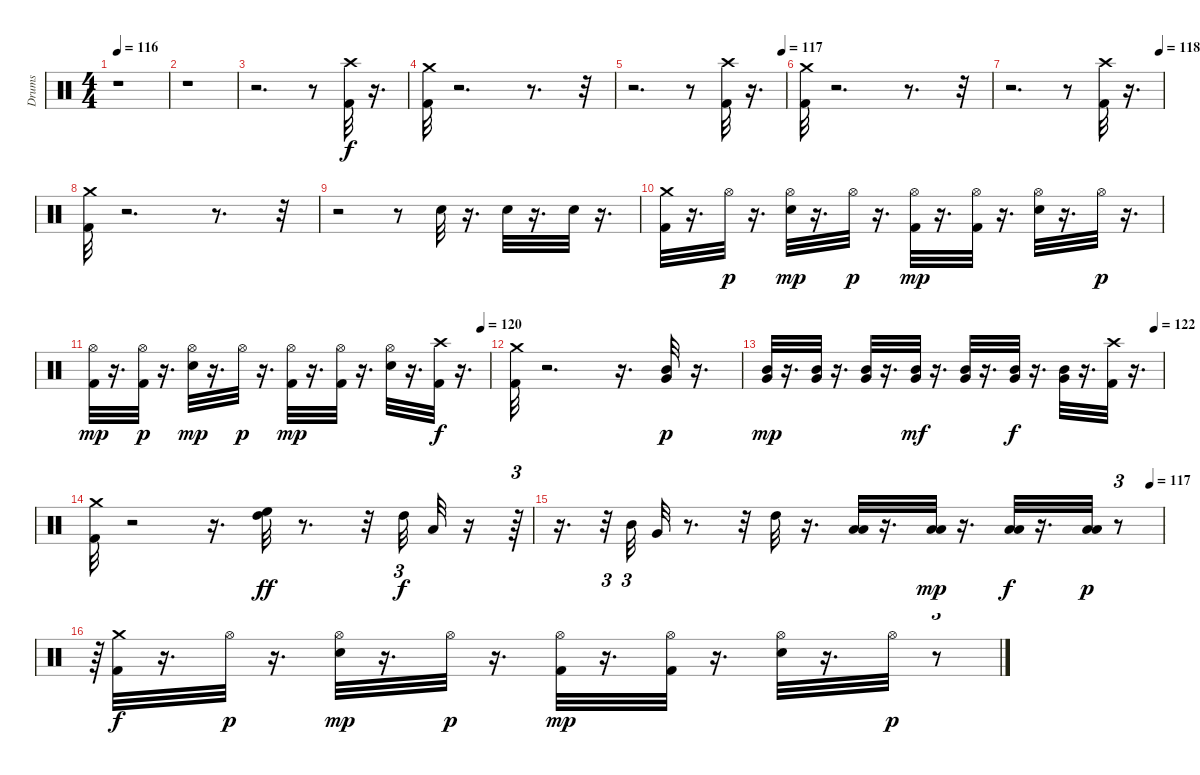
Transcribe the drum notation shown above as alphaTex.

\track ("Drums" "Drums") {instrument percussion}
\staff {score}
\articulation defaults
\ts (4 4)
\tempo 116
\clef neutral
\ks c
r.1{dy f} |
r.1 |
r.2{d} r.8 ("Crash high (hit)" "Kick (hit) 2").32 r.16{d} |
("Crash medium (hit)" "Kick (hit) 2").32 r.2{d} r.8{d} r.32 |
\tempo (117 0.9791666666666666)
r.2{d} r.8 ("Crash high (hit)" "Kick (hit) 2").32 r.16{d} |
("Crash medium (hit)" "Kick (hit) 2").32 r.2{d} r.8{d} r.32 |
\tempo (118 0.9791666666666666)
r.2{d} r.8 ("Crash high (hit)" "Kick (hit) 2").32 r.16{d} |
("Crash medium (hit)" "Kick (hit) 2").32 r.2{d} r.8{d} r.32 |
r.2 r.8 "Snare (hit) 2".32 r.16{d} "Snare (hit) 2".32 r.16{d} "Snare (hit) 2".32 r.16{d} |
("Crash medium (hit)" "Kick (hit) 2").32 r.16{d} "Hi-Hat (open)".32{dy p} r.16{d} ("Hi-Hat (open)" "Snare (hit) 2").32{dy mp} r.16{d} "Hi-Hat (open)".32{dy p} r.16{d} ("Kick (hit) 2" "Hi-Hat (open)").32{dy mp} r.16{d} ("Hi-Hat (open)" "Kick (hit) 2").32 r.16{d} ("Snare (hit) 2" "Hi-Hat (open)").32 r.16{d} "Hi-Hat (open)".32{dy p} r.16{d} |
\tempo (120 0.9791666666666666)
("Kick (hit) 2" "Hi-Hat (open)").32{dy mp} r.16{d} ("Kick (hit) 2" "Hi-Hat (open)").32{dy p} r.16{d} ("Hi-Hat (open)" "Snare (hit) 2").32{dy mp} r.16{d} "Hi-Hat (open)".32{dy p} r.16{d} ("Kick (hit) 2" "Hi-Hat (open)").32{dy mp} r.16{d} ("Hi-Hat (open)" "Kick (hit) 2").32 r.16{d} ("Snare (hit) 2" "Hi-Hat (open)").32 r.16{d} ("Crash high (hit)" "Kick (hit) 2").32{dy f} r.16{d} |
("Crash medium (hit)" "Kick (hit) 2").32 r.2{d} r.16{d} ("Mid Tom (hit)" "Very Low Tom (hit)").32{dy p} r.16{d} |
\tempo (122 0.9791666666666666)
("Very Low Tom (hit)" "Mid Tom (hit)").32{dy mp} r.16{d} ("Mid Tom (hit)" "Very Low Tom (hit)").32 r.16{d} ("Very Low Tom (hit)" "Mid Tom (hit)").32 r.16{d} ("Very Low Tom (hit)" "Mid Tom (hit)").32{dy mf} r.16{d} ("Mid Tom (hit)" "Very Low Tom (hit)").32 r.16{d} ("Very Low Tom (hit)" "Mid Tom (hit)").32{dy f} r.16{d} ("Very Low Tom (hit)" "Mid Tom (hit)").32 r.16{d} ("Crash high (hit)" "Kick (hit) 2").32 r.16{d} |
("Crash medium (hit)" "Kick (hit) 2").32 r.2 r.16{d} ("High Tom (hit)" "High Floor Tom (hit)").32{dy ff} r.8{d} r.32 "High Tom (hit)".32{tu (3 2) dy f} "Low Tom (hit)".32 r.16 r.64{tu (3 2)} |
\tempo (117 0.9791666666666666)
r.16{d} r.32{tu (3 2)} "Mid Tom (hit)".32{tu (3 2)} "Very Low Tom (hit)".32 r.8{d} r.32 "High Tom (hit)".32 r.16{d} ("Low Floor Tom (hit)" "Low Tom (hit)").32 r.16{d} ("Low Floor Tom (hit)" "Low Tom (hit)").32{dy mp} r.16{d} ("Low Tom (hit)" "Low Floor Tom (hit)").32{dy f} r.16{d} ("Low Tom (hit)" "Low Floor Tom (hit)").32{dy p} r.8{tu (3 2)} |
r.64{tu (3 2)} ("Crash medium (hit)" "Kick (hit) 2").32{dy f} r.16{d} "Hi-Hat (open)".32{dy p} r.16{d} ("Hi-Hat (open)" "Snare (hit) 2").32{dy mp} r.16{d} "Hi-Hat (open)".32{dy p} r.16{d} ("Kick (hit) 2" "Hi-Hat (open)").32{dy mp} r.16{d} ("Hi-Hat (open)" "Kick (hit) 2").32 r.16{d} ("Snare (hit) 2" "Hi-Hat (open)").32 r.16{d} "Hi-Hat (open)".32{dy p} r.8{tu (3 2)}
